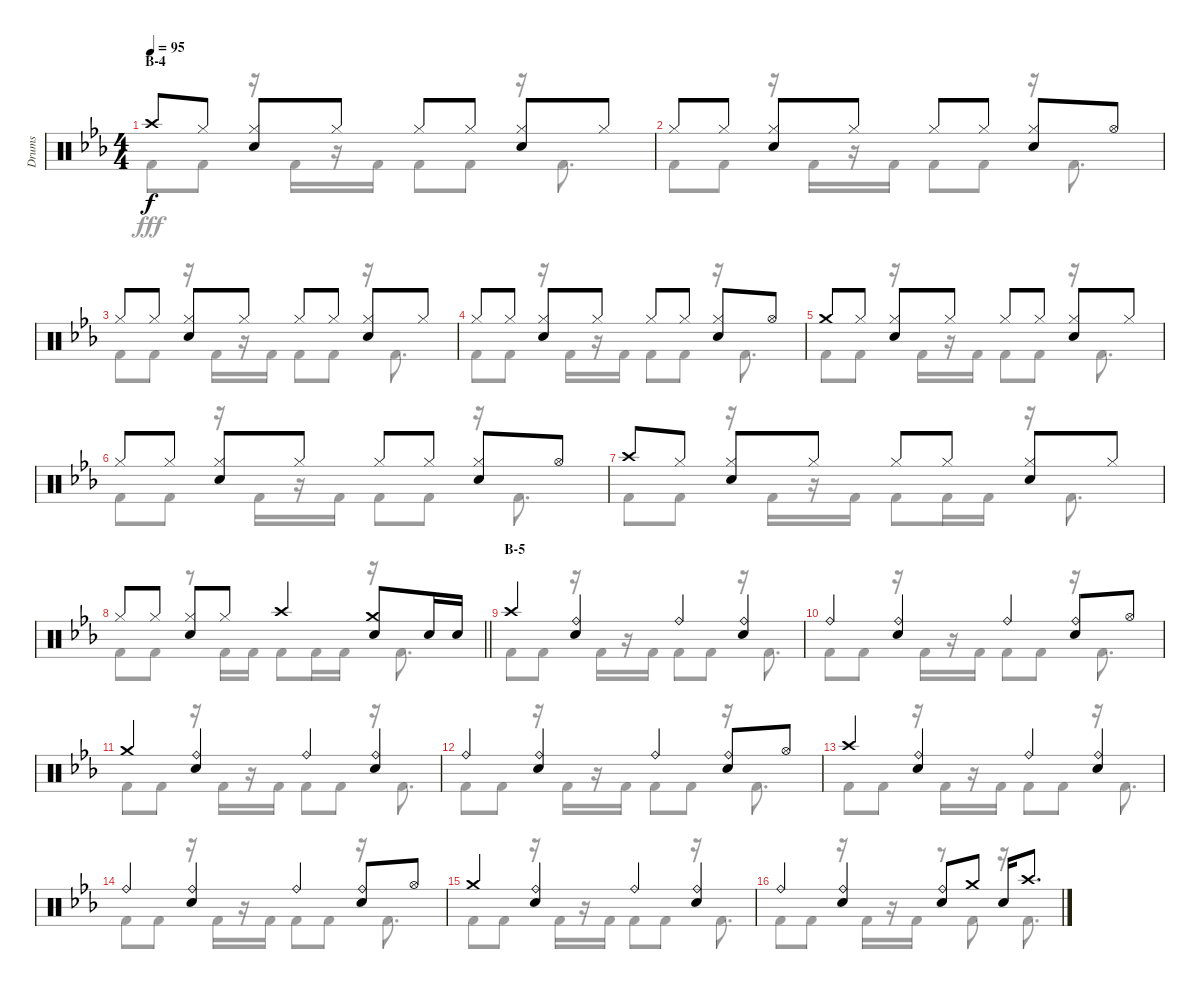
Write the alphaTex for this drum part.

\track ("Drums" "Drums") {instrument percussion}
\staff {score}
\articulation defaults
\voice
\ts (4 4)
\section ("" "B-4")
\tempo 95
\clef neutral
\ks cminor "Crash high (hit)".8{dy f} "Hi-Hat (closed)".8
("Hi-Hat (closed)" "Snare (hit) 2").8 "Hi-Hat (closed)".8 "Hi-Hat (closed)".8 "Hi-Hat (closed)".8 ("Hi-Hat (closed)" "Snare (hit) 2").8 "Hi-Hat (closed)".8 |
"Hi-Hat (closed)".8 "Hi-Hat (closed)".8 ("Hi-Hat (closed)" "Snare (hit) 2").8 "Hi-Hat (closed)".8 "Hi-Hat (closed)".8 "Hi-Hat (closed)".8 ("Hi-Hat (closed)" "Snare (hit) 2").8 "Hi-Hat (open)".8 |
"Hi-Hat (closed)".8 "Hi-Hat (closed)".8 ("Hi-Hat (closed)" "Snare (hit) 2").8 "Hi-Hat (closed)".8 "Hi-Hat (closed)".8 "Hi-Hat (closed)".8 ("Hi-Hat (closed)" "Snare (hit) 2").8 "Hi-Hat (closed)".8 |
"Hi-Hat (closed)".8 "Hi-Hat (closed)".8 ("Hi-Hat (closed)" "Snare (hit) 2").8 "Hi-Hat (closed)".8 "Hi-Hat (closed)".8 "Hi-Hat (closed)".8 ("Hi-Hat (closed)" "Snare (hit) 2").8 "Hi-Hat (open)".8 |
"Crash medium (hit)".8 "Hi-Hat (closed)".8 ("Hi-Hat (closed)" "Snare (hit) 2").8 "Hi-Hat (closed)".8 "Hi-Hat (closed)".8 "Hi-Hat (closed)".8 ("Hi-Hat (closed)" "Snare (hit) 2").8 "Hi-Hat (closed)".8 |
"Hi-Hat (closed)".8 "Hi-Hat (closed)".8 ("Hi-Hat (closed)" "Snare (hit) 2").8 "Hi-Hat (closed)".8 "Hi-Hat (closed)".8 "Hi-Hat (closed)".8 ("Hi-Hat (closed)" "Snare (hit) 2").8 "Hi-Hat (open)".8 |
"Crash high (hit)".8 "Hi-Hat (closed)".8 ("Hi-Hat (closed)" "Snare (hit) 2").8 "Hi-Hat (closed)".8 "Hi-Hat (closed)".8 "Hi-Hat (closed)".8 ("Hi-Hat (closed)" "Snare (hit) 2").8 "Hi-Hat (closed)".8 |
\barLineRight lightlight "Hi-Hat (closed)".8 "Hi-Hat (closed)".8
("Hi-Hat (closed)" "Snare (hit) 2").8 "Hi-Hat (closed)".8 "Crash high (hit)".4 ("Crash medium (hit)" "Snare (hit) 2").8 "Snare (hit) 2".16 "Snare (hit) 2".16 |
\section ("" "B-5")
"Crash high (hit)".4 ("Ride (bell)" "Snare (hit) 2").4 "Ride (bell)".4 ("Ride (bell)" "Snare (hit) 2").4 |
"Ride (bell)".4 ("Ride (bell)" "Snare (hit) 2").4 "Ride (bell)".4 ("Ride (bell)" "Snare (hit) 2").8 "Hi-Hat (open)".8 |
"Crash medium (hit)".4 ("Ride (bell)" "Snare (hit) 2").4 "Ride (bell)".4 ("Ride (bell)" "Snare (hit) 2").4 |
"Ride (bell)".4 ("Ride (bell)" "Snare (hit) 2").4 "Ride (bell)".4 ("Ride (bell)" "Snare (hit) 2").8 "Hi-Hat (open)".8 |
"Crash high (hit)".4 ("Ride (bell)" "Snare (hit) 2").4 "Ride (bell)".4 ("Ride (bell)" "Snare (hit) 2").4 |
"Ride (bell)".4 ("Ride (bell)" "Snare (hit) 2").4 "Ride (bell)".4 ("Ride (bell)" "Snare (hit) 2").8 "Hi-Hat (open)".8 |
"Crash medium (hit)".4 ("Ride (bell)" "Snare (hit) 2").4 "Ride (bell)".4 ("Ride (bell)" "Snare (hit) 2").4 |
"Ride (bell)".4 ("Ride (bell)" "Snare (hit) 2").4 ("Ride (bell)" "Snare (hit) 2").8 "Crash medium (hit)".8 "Snare (hit) 2".16 "Crash high (hit)".8{d}
\voice
\clef neutral
\ottava regular
\simile none
\ks cminor "Kick (hit) 2".8{dy fff} "Kick (hit) 2".8
r.16 "Kick (hit) 2".16 r.16 "Kick (hit) 2".16 "Kick (hit) 2".8 "Kick (hit) 2".8 r.16 "Kick (hit) 2".8{d} |
"Kick (hit) 2".8 "Kick (hit) 2".8 r.16 "Kick (hit) 2".16 r.16 "Kick (hit) 2".16 "Kick (hit) 2".8 "Kick (hit) 2".8 r.16 "Kick (hit) 2".8{d} |
"Kick (hit) 2".8 "Kick (hit) 2".8 r.16 "Kick (hit) 2".16 r.16 "Kick (hit) 2".16 "Kick (hit) 2".8 "Kick (hit) 2".8 r.16 "Kick (hit) 2".8{d} |
"Kick (hit) 2".8 "Kick (hit) 2".8 r.16 "Kick (hit) 2".16 r.16 "Kick (hit) 2".16 "Kick (hit) 2".8 "Kick (hit) 2".8 r.16 "Kick (hit) 2".8{d} |
"Kick (hit) 2".8 "Kick (hit) 2".8 r.16 "Kick (hit) 2".16 r.16 "Kick (hit) 2".16 "Kick (hit) 2".8 "Kick (hit) 2".8 r.16 "Kick (hit) 2".8{d} |
"Kick (hit) 2".8 "Kick (hit) 2".8 r.16 "Kick (hit) 2".16 r.16 "Kick (hit) 2".16 "Kick (hit) 2".8 "Kick (hit) 2".8 r.16 "Kick (hit) 2".8{d} |
"Kick (hit) 2".8 "Kick (hit) 2".8 r.16 "Kick (hit) 2".16 r.16 "Kick (hit) 2".16 "Kick (hit) 2".8 "Kick (hit) 2".16 "Kick (hit) 2".16 r.16 "Kick (hit) 2".8{d} |
\barLineRight lightlight "Kick (hit) 2".8 "Kick (hit) 2".8
r.8 "Kick (hit) 2".16 "Kick (hit) 2".16 "Kick (hit) 2".8 "Kick (hit) 2".16 "Kick (hit) 2".16 r.16 "Kick (hit) 2".8{d} |
"Kick (hit) 2".8 "Kick (hit) 2".8 r.16 "Kick (hit) 2".16 r.16 "Kick (hit) 2".16 "Kick (hit) 2".8 "Kick (hit) 2".8 r.16 "Kick (hit) 2".8{d} |
"Kick (hit) 2".8 "Kick (hit) 2".8 r.16 "Kick (hit) 2".16 r.16 "Kick (hit) 2".16 "Kick (hit) 2".8 "Kick (hit) 2".8 r.16 "Kick (hit) 2".8{d} |
"Kick (hit) 2".8 "Kick (hit) 2".8 r.16 "Kick (hit) 2".16 r.16 "Kick (hit) 2".16 "Kick (hit) 2".8 "Kick (hit) 2".8 r.16 "Kick (hit) 2".8{d} |
"Kick (hit) 2".8 "Kick (hit) 2".8 r.16 "Kick (hit) 2".16 r.16 "Kick (hit) 2".16 "Kick (hit) 2".8 "Kick (hit) 2".8 r.16 "Kick (hit) 2".8{d} |
"Kick (hit) 2".8 "Kick (hit) 2".8 r.16 "Kick (hit) 2".16 r.16 "Kick (hit) 2".16 "Kick (hit) 2".8 "Kick (hit) 2".8 r.16 "Kick (hit) 2".8{d} |
"Kick (hit) 2".8 "Kick (hit) 2".8 r.16 "Kick (hit) 2".16 r.16 "Kick (hit) 2".16 "Kick (hit) 2".8 "Kick (hit) 2".8 r.16 "Kick (hit) 2".8{d} |
"Kick (hit) 2".8 "Kick (hit) 2".8 r.16 "Kick (hit) 2".16 r.16 "Kick (hit) 2".16 "Kick (hit) 2".8 "Kick (hit) 2".8 r.16 "Kick (hit) 2".8{d} |
"Kick (hit) 2".8 "Kick (hit) 2".8 r.16 "Kick (hit) 2".16 r.16 "Kick (hit) 2".16 r.8 "Kick (hit) 2".8 r.16 "Kick (hit) 2".8{d}
